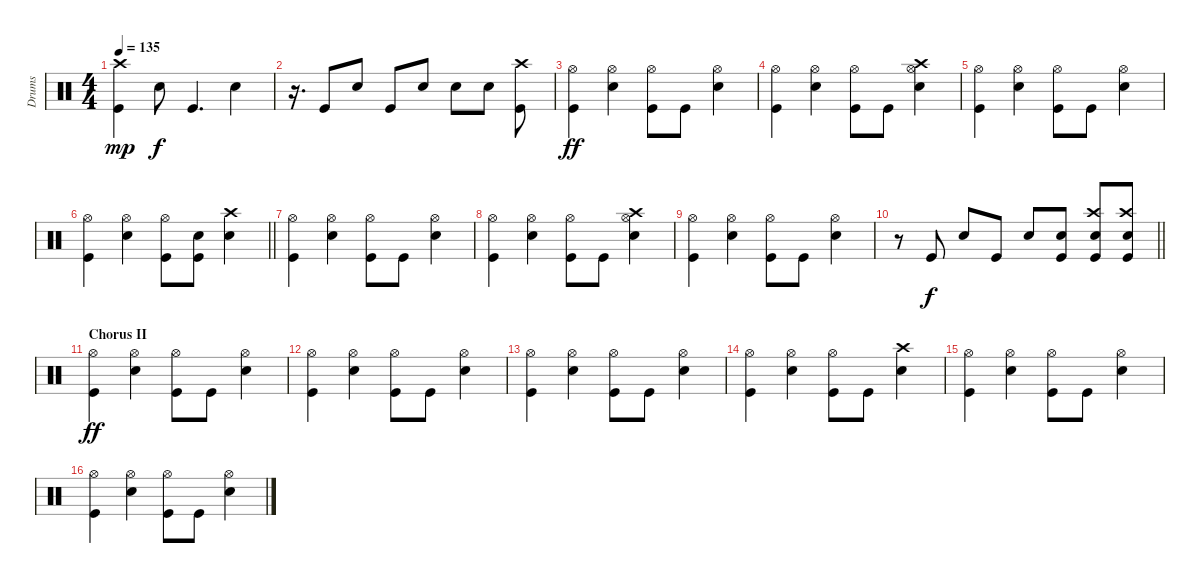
\track ("Drums" "Drums") {instrument percussion}
\staff {score}
\articulation defaults
\ts (4 4)
\tempo 135
\clef neutral
\ks c
("Kick (hit)" "Crash high (hit)").4{dy mp} "Snare (hit) 2".8{dy f} "Kick (hit)".4{d} "Snare (hit) 2".4 |
r.16{d} "Kick (hit)".8 "Snare (hit) 2".8 "Kick (hit)".8 "Snare (hit) 2".8 "Snare (hit) 2".8 "Snare (hit) 2".8 ("Kick (hit)" "Crash high (hit)").8 |
("Kick (hit)" "Hi-Hat (open)").4{dy ff} ("Snare (hit) 2" "Hi-Hat (open)").4 ("Kick (hit)" "Hi-Hat (open)").8 "Kick (hit)".8 ("Snare (hit) 2" "Hi-Hat (open)").4 |
("Kick (hit)" "Hi-Hat (open)").4 ("Snare (hit) 2" "Hi-Hat (open)").4 ("Kick (hit)" "Hi-Hat (open)").8 "Kick (hit)".8 ("Snare (hit) 2" "Crash high (hit)" "Hi-Hat (open)").4 |
("Kick (hit)" "Hi-Hat (open)").4 ("Snare (hit) 2" "Hi-Hat (open)").4 ("Kick (hit)" "Hi-Hat (open)").8 "Kick (hit)".8 ("Snare (hit) 2" "Hi-Hat (open)").4 |
\barLineRight lightlight
("Kick (hit)" "Hi-Hat (open)").4 ("Snare (hit) 2" "Hi-Hat (open)").4 ("Kick (hit)" "Hi-Hat (open)").8 ("Kick (hit)" "Snare (hit) 2").8 ("Snare (hit) 2" "Crash high (hit)").4 |
("Kick (hit)" "Hi-Hat (open)").4 ("Snare (hit) 2" "Hi-Hat (open)").4 ("Kick (hit)" "Hi-Hat (open)").8 "Kick (hit)".8 ("Snare (hit) 2" "Hi-Hat (open)").4 |
("Kick (hit)" "Hi-Hat (open)").4 ("Snare (hit) 2" "Hi-Hat (open)").4 ("Kick (hit)" "Hi-Hat (open)").8 "Kick (hit)".8 ("Snare (hit) 2" "Crash high (hit)" "Hi-Hat (open)").4 |
("Kick (hit)" "Hi-Hat (open)").4 ("Snare (hit) 2" "Hi-Hat (open)").4 ("Kick (hit)" "Hi-Hat (open)").8 "Kick (hit)".8 ("Snare (hit) 2" "Hi-Hat (open)").4 |
\barLineRight lightlight
r.8 "Kick (hit)".8{dy f} "Snare (hit) 2".8 "Kick (hit)".8 "Snare (hit) 2".8 ("Kick (hit)" "Snare (hit) 2").8 ("Kick (hit)" "Snare (hit) 2" "Crash high (hit)").8 ("Kick (hit)" "Snare (hit) 2" "Crash high (hit)").8 |
\section ("" "Chorus II")
("Kick (hit)" "Hi-Hat (open)").4{dy ff} ("Snare (hit) 2" "Hi-Hat (open)").4 ("Kick (hit)" "Hi-Hat (open)").8 "Kick (hit)".8 ("Snare (hit) 2" "Hi-Hat (open)").4 |
("Kick (hit)" "Hi-Hat (open)").4 ("Snare (hit) 2" "Hi-Hat (open)").4 ("Kick (hit)" "Hi-Hat (open)").8 "Kick (hit)".8 ("Snare (hit) 2" "Hi-Hat (open)").4 |
("Kick (hit)" "Hi-Hat (open)").4 ("Snare (hit) 2" "Hi-Hat (open)").4 ("Kick (hit)" "Hi-Hat (open)").8 "Kick (hit)".8 ("Snare (hit) 2" "Hi-Hat (open)").4 |
("Kick (hit)" "Hi-Hat (open)").4 ("Snare (hit) 2" "Hi-Hat (open)").4 ("Kick (hit)" "Hi-Hat (open)").8 "Kick (hit)".8 ("Snare (hit) 2" "Crash high (hit)").4 |
("Kick (hit)" "Hi-Hat (open)").4 ("Snare (hit) 2" "Hi-Hat (open)").4 ("Kick (hit)" "Hi-Hat (open)").8 "Kick (hit)".8 ("Snare (hit) 2" "Hi-Hat (open)").4 |
("Kick (hit)" "Hi-Hat (open)").4 ("Snare (hit) 2" "Hi-Hat (open)").4 ("Kick (hit)" "Hi-Hat (open)").8 "Kick (hit)".8 ("Snare (hit) 2" "Hi-Hat (open)").4
